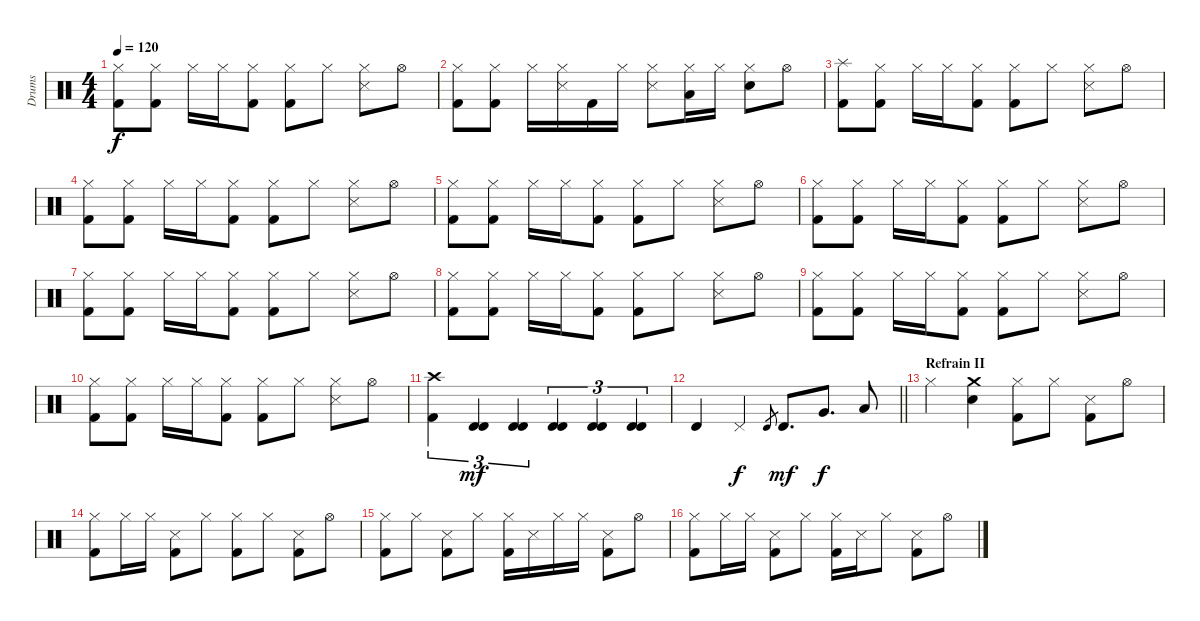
\track ("Drums" "Drums") {instrument percussion}
\staff {score}
\articulation defaults
\ts (4 4)
\tempo 120
\clef neutral
\ks c
("Hi-Hat (closed)" "Kick (hit) 2").8{dy f} ("Hi-Hat (closed)" "Kick (hit) 2").8 "Hi-Hat (closed)".16 "Hi-Hat (closed)".16 ("Hi-Hat (closed)" "Kick (hit) 2").8 ("Hi-Hat (closed)" "Kick (hit) 2").8 "Hi-Hat (closed)".8 ("Hi-Hat (closed)" "Snare (side stick) 3").8 "Hi-Hat (open)".8 |
("Hi-Hat (closed)" "Kick (hit) 2").8 ("Hi-Hat (closed)" "Kick (hit) 2").8 "Hi-Hat (closed)".16 ("Hi-Hat (closed)" "Snare (side stick) 3").16 "Kick (hit) 2".16 "Hi-Hat (closed)".16 ("Hi-Hat (closed)" "Snare (side stick) 3").8 ("Hi-Hat (closed)" "Low Tom (hit)").16 "Hi-Hat (closed)".16 ("Hi-Hat (closed)" "Snare (hit) 2").8 "Hi-Hat (open)".8 |
("Splash (hit)" "Kick (hit) 2").8 ("Hi-Hat (closed)" "Kick (hit) 2").8 "Hi-Hat (closed)".16 "Hi-Hat (closed)".16 ("Hi-Hat (closed)" "Kick (hit) 2").8 ("Hi-Hat (closed)" "Kick (hit) 2").8 "Hi-Hat (closed)".8 ("Hi-Hat (closed)" "Snare (side stick) 3").8 "Hi-Hat (open)".8 |
("Hi-Hat (closed)" "Kick (hit) 2").8 ("Hi-Hat (closed)" "Kick (hit) 2").8 "Hi-Hat (closed)".16 "Hi-Hat (closed)".16 ("Hi-Hat (closed)" "Kick (hit) 2").8 ("Hi-Hat (closed)" "Kick (hit) 2").8 "Hi-Hat (closed)".8 ("Hi-Hat (closed)" "Snare (side stick) 3").8 "Hi-Hat (open)".8 |
("Hi-Hat (closed)" "Kick (hit) 2").8 ("Hi-Hat (closed)" "Kick (hit) 2").8 "Hi-Hat (closed)".16 "Hi-Hat (closed)".16 ("Hi-Hat (closed)" "Kick (hit) 2").8 ("Hi-Hat (closed)" "Kick (hit) 2").8 "Hi-Hat (closed)".8 ("Hi-Hat (closed)" "Snare (side stick) 3").8 "Hi-Hat (open)".8 |
("Hi-Hat (closed)" "Kick (hit) 2").8 ("Hi-Hat (closed)" "Kick (hit) 2").8 "Hi-Hat (closed)".16 "Hi-Hat (closed)".16 ("Hi-Hat (closed)" "Kick (hit) 2").8 ("Hi-Hat (closed)" "Kick (hit) 2").8 "Hi-Hat (closed)".8 ("Hi-Hat (closed)" "Snare (side stick) 3").8 "Hi-Hat (open)".8 |
("Hi-Hat (closed)" "Kick (hit) 2").8 ("Hi-Hat (closed)" "Kick (hit) 2").8 "Hi-Hat (closed)".16 "Hi-Hat (closed)".16 ("Hi-Hat (closed)" "Kick (hit) 2").8 ("Hi-Hat (closed)" "Kick (hit) 2").8 "Hi-Hat (closed)".8 ("Hi-Hat (closed)" "Snare (side stick) 3").8 "Hi-Hat (open)".8 |
("Hi-Hat (closed)" "Kick (hit) 2").8 ("Hi-Hat (closed)" "Kick (hit) 2").8 "Hi-Hat (closed)".16 "Hi-Hat (closed)".16 ("Hi-Hat (closed)" "Kick (hit) 2").8 ("Hi-Hat (closed)" "Kick (hit) 2").8 "Hi-Hat (closed)".8 ("Hi-Hat (closed)" "Snare (side stick) 3").8 "Hi-Hat (open)".8 |
("Hi-Hat (closed)" "Kick (hit) 2").8 ("Hi-Hat (closed)" "Kick (hit) 2").8 "Hi-Hat (closed)".16 "Hi-Hat (closed)".16 ("Hi-Hat (closed)" "Kick (hit) 2").8 ("Hi-Hat (closed)" "Kick (hit) 2").8 "Hi-Hat (closed)".8 ("Hi-Hat (closed)" "Snare (side stick) 3").8 "Hi-Hat (open)".8 |
("Hi-Hat (closed)" "Kick (hit) 2").8 ("Hi-Hat (closed)" "Kick (hit) 2").8 "Hi-Hat (closed)".16 "Hi-Hat (closed)".16 ("Hi-Hat (closed)" "Kick (hit) 2").8 ("Hi-Hat (closed)" "Kick (hit) 2").8 "Hi-Hat (closed)".8 ("Hi-Hat (closed)" "Snare (side stick) 3").8 "Hi-Hat (open)".8 |
("Crash high (hit)" "Kick (hit) 2").4{tu (3 2)} ("Timbale high (hit)" "Timbale high (hit)").4{tu (3 2) bd 60 dy mf} ("Timbale high (hit)" "Timbale high (hit)").4{tu (3 2) bd 60} ("Timbale high (hit)" "Timbale high (hit)").4{tu (3 2) bd 60} ("Timbale high (hit)" "Timbale high (hit)").4{tu (3 2) bd 60} ("Timbale high (hit)" "Timbale high (hit)").4{tu (3 2) bd 60} |
\barLineRight lightlight "Timbale high (hit)".4 "Pedal Hi-Hat (hit)".4{dy f} "Timbale high (hit)".8{gr} "Timbale high (hit)".8{d dy mf} "Very Low Tom (hit)".8{d dy f} "Low Floor Tom (hit)".8
|
\section ("" "Refrain II")
"Hi-Hat (closed)".4 ("Crash medium (hit)" "Snare (hit) 2").4 ("Hi-Hat (closed)" "Kick (hit) 2").8 "Hi-Hat (closed)".8 ("Snare (side stick) 3" "Kick (hit) 2").8 "Hi-Hat (open)".8 |
("Hi-Hat (closed)" "Kick (hit) 2").8 "Hi-Hat (closed)".16 "Hi-Hat (closed)".16 ("Snare (side stick) 3" "Kick (hit) 2").8 "Hi-Hat (closed)".8 ("Hi-Hat (closed)" "Kick (hit) 2").8 "Hi-Hat (closed)".8 ("Snare (side stick) 3" "Kick (hit) 2").8 "Hi-Hat (open)".8 |
("Hi-Hat (closed)" "Kick (hit) 2").8 "Hi-Hat (closed)".8 ("Snare (side stick) 3" "Kick (hit) 2").8 "Hi-Hat (closed)".8 ("Hi-Hat (closed)" "Kick (hit) 2").16 "Snare (side stick) 3".16 "Hi-Hat (closed)".16 "Hi-Hat (closed)".16 ("Snare (side stick) 3" "Kick (hit) 2").8 "Hi-Hat (open)".8 |
("Hi-Hat (closed)" "Kick (hit) 2").8 "Hi-Hat (closed)".16 "Hi-Hat (closed)".16 ("Snare (side stick) 3" "Kick (hit) 2").8 "Hi-Hat (closed)".8 ("Hi-Hat (closed)" "Kick (hit) 2").16 "Snare (side stick) 3".16 "Hi-Hat (closed)".8 ("Snare (side stick) 3" "Kick (hit) 2").8 "Hi-Hat (open)".8
